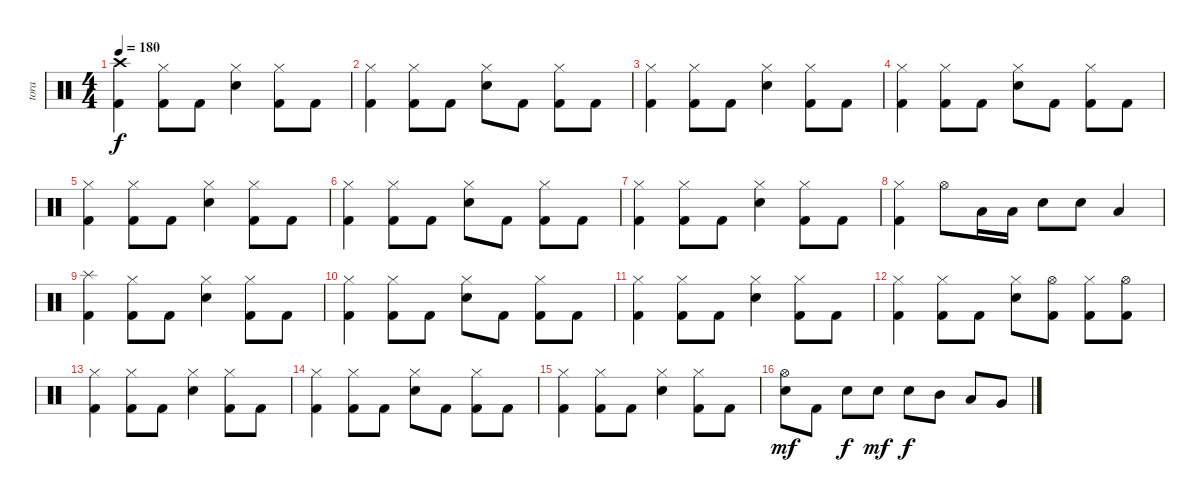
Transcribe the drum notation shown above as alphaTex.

\track ("tora" "tora") {instrument percussion}
\staff {score}
\articulation defaults
\ts (4 4)
\tempo 180
\clef neutral
\ks c
("Crash high (hit)" "Kick (hit) 2").4{dy f} ("Hi-Hat (closed)" "Kick (hit) 2").8 "Kick (hit) 2".8 ("Hi-Hat (closed)" "Snare (hit) 2").4 ("Hi-Hat (closed)" "Kick (hit) 2").8 "Kick (hit) 2".8 |
("Hi-Hat (closed)" "Kick (hit) 2").4 ("Hi-Hat (closed)" "Kick (hit) 2").8 "Kick (hit) 2".8 ("Hi-Hat (closed)" "Snare (hit) 2").8 "Kick (hit) 2".8 ("Hi-Hat (closed)" "Kick (hit) 2").8 "Kick (hit) 2".8 |
("Hi-Hat (closed)" "Kick (hit) 2").4 ("Hi-Hat (closed)" "Kick (hit) 2").8 "Kick (hit) 2".8 ("Hi-Hat (closed)" "Snare (hit) 2").4 ("Hi-Hat (closed)" "Kick (hit) 2").8 "Kick (hit) 2".8 |
("Hi-Hat (closed)" "Kick (hit) 2").4 ("Hi-Hat (closed)" "Kick (hit) 2").8 "Kick (hit) 2".8 ("Hi-Hat (closed)" "Snare (hit) 2").8 "Kick (hit) 2".8 ("Hi-Hat (closed)" "Kick (hit) 2").8 "Kick (hit) 2".8 |
("Hi-Hat (closed)" "Kick (hit) 2").4 ("Hi-Hat (closed)" "Kick (hit) 2").8 "Kick (hit) 2".8 ("Hi-Hat (closed)" "Snare (hit) 2").4 ("Hi-Hat (closed)" "Kick (hit) 2").8 "Kick (hit) 2".8 |
("Hi-Hat (closed)" "Kick (hit) 2").4 ("Hi-Hat (closed)" "Kick (hit) 2").8 "Kick (hit) 2".8 ("Hi-Hat (closed)" "Snare (hit) 2").8 "Kick (hit) 2".8 ("Hi-Hat (closed)" "Kick (hit) 2").8 "Kick (hit) 2".8 |
("Hi-Hat (closed)" "Kick (hit) 2").4 ("Hi-Hat (closed)" "Kick (hit) 2").8 "Kick (hit) 2".8 ("Hi-Hat (closed)" "Snare (hit) 2").4 ("Hi-Hat (closed)" "Kick (hit) 2").8 "Kick (hit) 2".8 |
("Hi-Hat (closed)" "Kick (hit) 2").4 "Hi-Hat (open)".8 "Low Floor Tom (hit)".16 "Low Floor Tom (hit)".16 "Snare (hit) 2".8 "Snare (hit) 2".8 "Low Tom (hit)".4 |
("Splash (hit)" "Kick (hit) 2").4 ("Hi-Hat (closed)" "Kick (hit) 2").8 "Kick (hit) 2".8 ("Hi-Hat (closed)" "Snare (hit) 2").4 ("Hi-Hat (closed)" "Kick (hit) 2").8 "Kick (hit) 2".8 |
("Hi-Hat (closed)" "Kick (hit) 2").4 ("Hi-Hat (closed)" "Kick (hit) 2").8 "Kick (hit) 2".8 ("Hi-Hat (closed)" "Snare (hit) 2").8 "Kick (hit) 2".8 ("Hi-Hat (closed)" "Kick (hit) 2").8 "Kick (hit) 2".8 |
("Hi-Hat (closed)" "Kick (hit) 2").4 ("Hi-Hat (closed)" "Kick (hit) 2").8 "Kick (hit) 2".8 ("Hi-Hat (closed)" "Snare (hit) 2").4 ("Hi-Hat (closed)" "Kick (hit) 2").8 "Kick (hit) 2".8 |
("Hi-Hat (closed)" "Kick (hit) 2").4 ("Hi-Hat (closed)" "Kick (hit) 2").8 "Kick (hit) 2".8 ("Hi-Hat (closed)" "Snare (hit) 2").8 ("Hi-Hat (open)" "Kick (hit) 2").8 ("Hi-Hat (closed)" "Kick (hit) 2").8 ("Hi-Hat (open)" "Kick (hit) 2").8 |
("Hi-Hat (closed)" "Kick (hit) 2").4 ("Hi-Hat (closed)" "Kick (hit) 2").8 "Kick (hit) 2".8 ("Hi-Hat (closed)" "Snare (hit) 2").4 ("Hi-Hat (closed)" "Kick (hit) 2").8 "Kick (hit) 2".8 |
("Hi-Hat (closed)" "Kick (hit) 2").4 ("Hi-Hat (closed)" "Kick (hit) 2").8 "Kick (hit) 2".8 ("Hi-Hat (closed)" "Snare (hit) 2").8 "Kick (hit) 2".8 ("Hi-Hat (closed)" "Kick (hit) 2").8 "Kick (hit) 2".8 |
("Hi-Hat (closed)" "Kick (hit) 2").4 ("Hi-Hat (closed)" "Kick (hit) 2").8 "Kick (hit) 2".8 ("Hi-Hat (closed)" "Snare (hit) 2").4 ("Hi-Hat (closed)" "Kick (hit) 2").8 "Kick (hit) 2".8 |
("Hi-Hat (open)" "Snare (hit) 2").8{dy mf} "Kick (hit) 2".8 "Snare (hit) 2".8{dy f} "Snare (hit) 2".8{dy mf} "Snare (hit) 2".8{dy f} "Mid Tom (hit)".8 "Low Tom (hit)".8 "Very Low Tom (hit)".8
